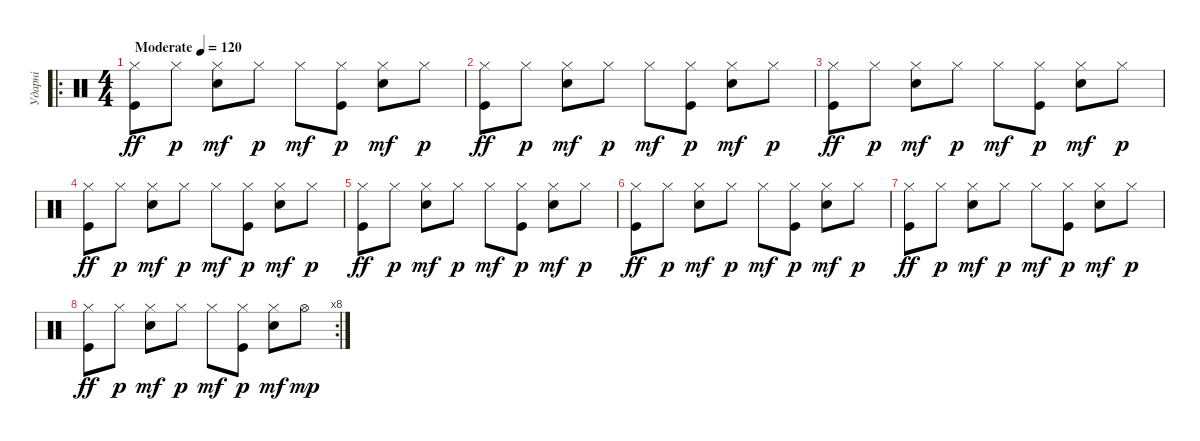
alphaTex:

\track ("Ударні" "Ударні") {instrument percussion}
\staff {score}
\articulation defaults
\ro
\ts (4 4)
\tempo (120 "Moderate")
\clef neutral
\ks c
("Hi-Hat (closed)" "Kick (hit)").8{dy ff} "Hi-Hat (closed)".8{dy p} ("Hi-Hat (closed)" "Snare (hit) 2").8{dy mf} "Hi-Hat (closed)".8{dy p} "Hi-Hat (closed)".8{dy mf} ("Hi-Hat (closed)" "Kick (hit)").8{dy p} ("Hi-Hat (closed)" "Snare (hit) 2").8{dy mf} "Hi-Hat (closed)".8{dy p} |
("Hi-Hat (closed)" "Kick (hit)").8{dy ff} "Hi-Hat (closed)".8{dy p} ("Hi-Hat (closed)" "Snare (hit) 2").8{dy mf} "Hi-Hat (closed)".8{dy p} "Hi-Hat (closed)".8{dy mf} ("Hi-Hat (closed)" "Kick (hit)").8{dy p} ("Hi-Hat (closed)" "Snare (hit) 2").8{dy mf} "Hi-Hat (closed)".8{dy p} |
("Hi-Hat (closed)" "Kick (hit)").8{dy ff} "Hi-Hat (closed)".8{dy p} ("Hi-Hat (closed)" "Snare (hit) 2").8{dy mf} "Hi-Hat (closed)".8{dy p} "Hi-Hat (closed)".8{dy mf} ("Hi-Hat (closed)" "Kick (hit)").8{dy p} ("Hi-Hat (closed)" "Snare (hit) 2").8{dy mf} "Hi-Hat (closed)".8{dy p} |
("Hi-Hat (closed)" "Kick (hit)").8{dy ff} "Hi-Hat (closed)".8{dy p} ("Hi-Hat (closed)" "Snare (hit) 2").8{dy mf} "Hi-Hat (closed)".8{dy p} "Hi-Hat (closed)".8{dy mf} ("Hi-Hat (closed)" "Kick (hit)").8{dy p} ("Hi-Hat (closed)" "Snare (hit) 2").8{dy mf} "Hi-Hat (closed)".8{dy p} |
("Hi-Hat (closed)" "Kick (hit)").8{dy ff} "Hi-Hat (closed)".8{dy p} ("Hi-Hat (closed)" "Snare (hit) 2").8{dy mf} "Hi-Hat (closed)".8{dy p} "Hi-Hat (closed)".8{dy mf} ("Hi-Hat (closed)" "Kick (hit)").8{dy p} ("Hi-Hat (closed)" "Snare (hit) 2").8{dy mf} "Hi-Hat (closed)".8{dy p} |
("Hi-Hat (closed)" "Kick (hit)").8{dy ff} "Hi-Hat (closed)".8{dy p} ("Hi-Hat (closed)" "Snare (hit) 2").8{dy mf} "Hi-Hat (closed)".8{dy p} "Hi-Hat (closed)".8{dy mf} ("Hi-Hat (closed)" "Kick (hit)").8{dy p} ("Hi-Hat (closed)" "Snare (hit) 2").8{dy mf} "Hi-Hat (closed)".8{dy p} |
("Hi-Hat (closed)" "Kick (hit)").8{dy ff} "Hi-Hat (closed)".8{dy p} ("Hi-Hat (closed)" "Snare (hit) 2").8{dy mf} "Hi-Hat (closed)".8{dy p} "Hi-Hat (closed)".8{dy mf} ("Hi-Hat (closed)" "Kick (hit)").8{dy p} ("Hi-Hat (closed)" "Snare (hit) 2").8{dy mf} "Hi-Hat (closed)".8{dy p} |
\rc 8
("Hi-Hat (closed)" "Kick (hit)").8{dy ff} "Hi-Hat (closed)".8{dy p} ("Hi-Hat (closed)" "Snare (hit) 2").8{dy mf} "Hi-Hat (closed)".8{dy p} "Hi-Hat (closed)".8{dy mf} ("Hi-Hat (closed)" "Kick (hit)").8{dy p} ("Hi-Hat (closed)" "Snare (hit) 2").8{dy mf} "Hi-Hat (open)".8{dy mp}
